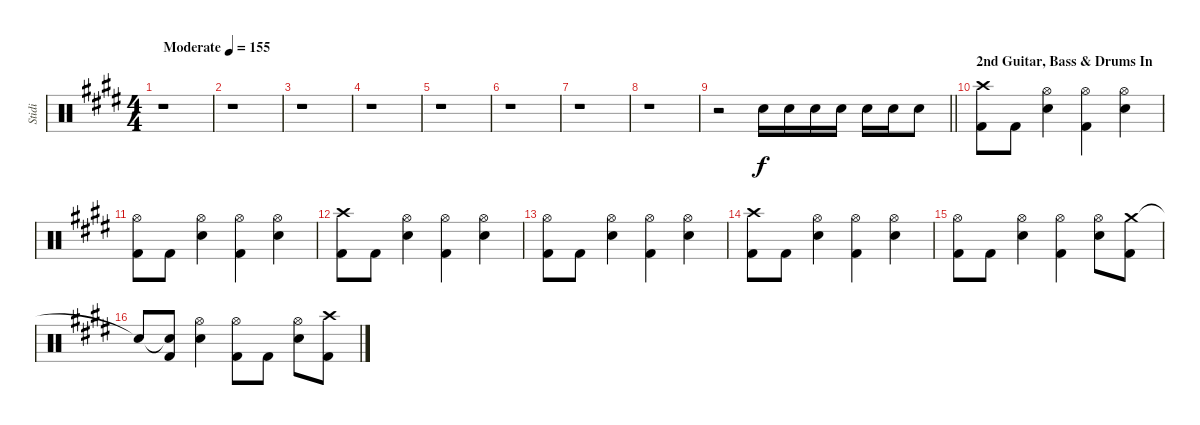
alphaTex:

\track ("Stidi" "Stidi") {instrument percussion}
\staff {score}
\articulation defaults
\ts (4 4)
\tempo (155 "Moderate")
\clef neutral
\ks e
r.1{dy f} |
r.1 |
r.1 |
r.1 |
r.1 |
r.1 |
r.1 |
r.1 |
\barLineRight lightlight
r.2 "Snare (hit) 2".16 "Snare (hit) 2".16 "Snare (hit) 2".16 "Snare (hit) 2".16 "Snare (hit) 2".16 "Snare (hit) 2".16 "Snare (hit) 2".8 |
\section ("" "2nd Guitar, Bass & Drums In")
("Crash high (hit)" "Kick (hit) 2").8 "Kick (hit) 2".8 ("Hi-Hat (open)" "Snare (hit) 2").4 ("Hi-Hat (open)" "Kick (hit) 2").4 ("Hi-Hat (open)" "Snare (hit) 2").4 |
("Hi-Hat (open)" "Kick (hit) 2").8 "Kick (hit) 2".8 ("Hi-Hat (open)" "Snare (hit) 2").4 ("Hi-Hat (open)" "Kick (hit) 2").4 ("Hi-Hat (open)" "Snare (hit) 2").4 |
("Crash high (hit)" "Kick (hit) 2").8 "Kick (hit) 2".8 ("Hi-Hat (open)" "Snare (hit) 2").4 ("Hi-Hat (open)" "Kick (hit) 2").4 ("Hi-Hat (open)" "Snare (hit) 2").4 |
("Hi-Hat (open)" "Kick (hit) 2").8 "Kick (hit) 2".8 ("Hi-Hat (open)" "Snare (hit) 2").4 ("Hi-Hat (open)" "Kick (hit) 2").4 ("Hi-Hat (open)" "Snare (hit) 2").4 |
("Crash high (hit)" "Kick (hit) 2").8 "Kick (hit) 2".8 ("Hi-Hat (open)" "Snare (hit) 2").4 ("Hi-Hat (open)" "Kick (hit) 2").4 ("Hi-Hat (open)" "Snare (hit) 2").4 |
("Hi-Hat (open)" "Kick (hit) 2").8 "Kick (hit) 2".8 ("Hi-Hat (open)" "Snare (hit) 2").4 ("Hi-Hat (open)" "Kick (hit) 2").4 ("Hi-Hat (open)" "Snare (hit) 2").8 ("Crash medium (hit)" "Kick (hit) 2").8 |
"Snare (hit)"{t}.8 ("Snare (hit)"{t} "Kick (hit) 2").8 ("Hi-Hat (open)" "Snare (hit) 2").4 ("Hi-Hat (open)" "Kick (hit) 2").8 "Kick (hit) 2".8 ("Hi-Hat (open)" "Snare (hit) 2").8 ("Crash high (hit)" "Kick (hit) 2").8
